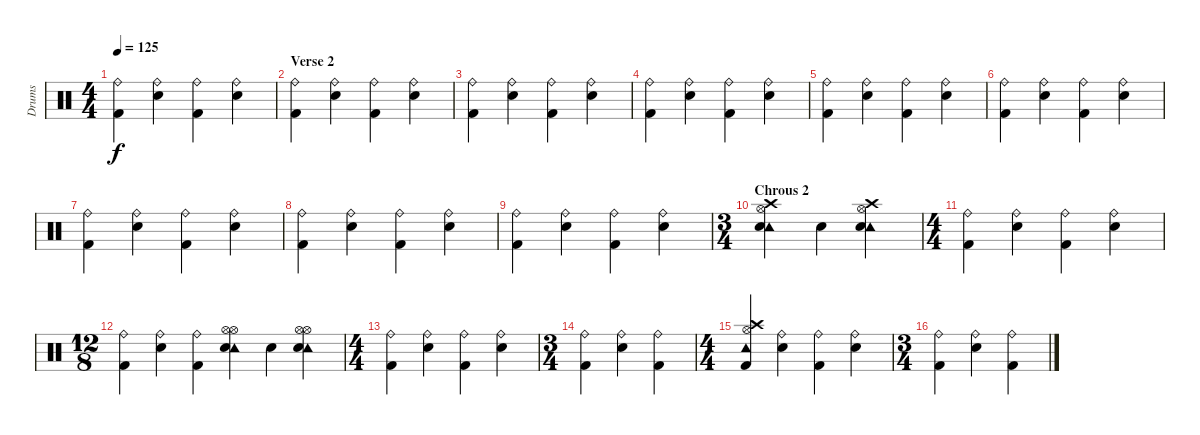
\track ("Drums" "Drums") {instrument percussion}
\staff {score}
\articulation defaults
\ts (4 4)
\tempo 125
\clef neutral
\ks c
("Ride (bell)" "Kick (hit) 2").4{dy f} ("Ride (bell)" "Snare (hit) 2").4 ("Ride (bell)" "Kick (hit) 2").4 ("Ride (bell)" "Snare (hit) 2").4 |
\section ("" "Verse 2")
("Ride (bell)" "Kick (hit) 2").4 ("Ride (bell)" "Snare (hit) 2").4 ("Ride (bell)" "Kick (hit) 2").4 ("Ride (bell)" "Snare (hit) 2").4 |
("Ride (bell)" "Kick (hit) 2").4 ("Ride (bell)" "Snare (hit) 2").4 ("Ride (bell)" "Kick (hit) 2").4 ("Ride (bell)" "Snare (hit) 2").4 |
("Ride (bell)" "Kick (hit) 2").4 ("Ride (bell)" "Snare (hit) 2").4 ("Ride (bell)" "Kick (hit) 2").4 ("Ride (bell)" "Snare (hit) 2").4 |
("Ride (bell)" "Kick (hit) 2").4 ("Ride (bell)" "Snare (hit) 2").4 ("Ride (bell)" "Kick (hit) 2").4 ("Ride (bell)" "Snare (hit) 2").4 |
("Ride (bell)" "Kick (hit) 2").4 ("Ride (bell)" "Snare (hit) 2").4 ("Ride (bell)" "Kick (hit) 2").4 ("Ride (bell)" "Snare (hit) 2").4 |
("Ride (bell)" "Kick (hit) 2").4 ("Ride (bell)" "Snare (hit) 2").4 ("Ride (bell)" "Kick (hit) 2").4 ("Ride (bell)" "Snare (hit) 2").4 |
("Ride (bell)" "Kick (hit) 2").4 ("Ride (bell)" "Snare (hit) 2").4 ("Ride (bell)" "Kick (hit) 2").4 ("Ride (bell)" "Snare (hit) 2").4 |
("Ride (bell)" "Kick (hit) 2").4 ("Ride (bell)" "Snare (hit) 2").4 ("Ride (bell)" "Kick (hit) 2").4 ("Ride (bell)" "Snare (hit) 2").4 |
\ts (3 4)
\section ("" "Chrous 2")
("Crash high (hit)" "Hi-Hat (open)" "Tambourine (hit)" "Snare (hit) 2").4 "Snare (hit) 2".4 ("Crash high (hit)" "Hi-Hat (open)" "Tambourine (hit)" "Snare (hit) 2").4 |
\ts (4 4)
("Ride (bell)" "Kick (hit) 2").4 ("Ride (bell)" "Snare (hit) 2").4 ("Ride (bell)" "Kick (hit) 2").4 ("Ride (bell)" "Snare (hit) 2").4 |
\ts (12 8)
("Ride (bell)" "Kick (hit) 2").4 ("Ride (bell)" "Snare (hit) 2").4 ("Ride (bell)" "Kick (hit) 2").4 ("Hi-Hat (open)" "Hi-Hat (open)" "Tambourine (hit)" "Snare (hit) 2").4 "Snare (hit) 2".4 ("Hi-Hat (open)" "Hi-Hat (open)" "Tambourine (hit)" "Snare (hit) 2").4 |
\ts (4 4)
("Ride (bell)" "Kick (hit) 2").4 ("Ride (bell)" "Snare (hit) 2").4 ("Ride (bell)" "Kick (hit) 2").4 ("Ride (bell)" "Snare (hit) 2").4 |
\ts (3 4)
("Ride (bell)" "Kick (hit) 2").4 ("Ride (bell)" "Snare (hit) 2").4 ("Ride (bell)" "Kick (hit) 2").4 |
\ts (4 4)
("Crash high (hit)" "Hi-Hat (open)" "Tambourine (hit)" "Kick (hit) 2").4 ("Ride (bell)" "Snare (hit) 2").4 ("Ride (bell)" "Kick (hit) 2").4 ("Ride (bell)" "Snare (hit) 2").4 |
\ts (3 4)
("Ride (bell)" "Kick (hit) 2").4 ("Ride (bell)" "Snare (hit) 2").4 ("Ride (bell)" "Kick (hit) 2").4
